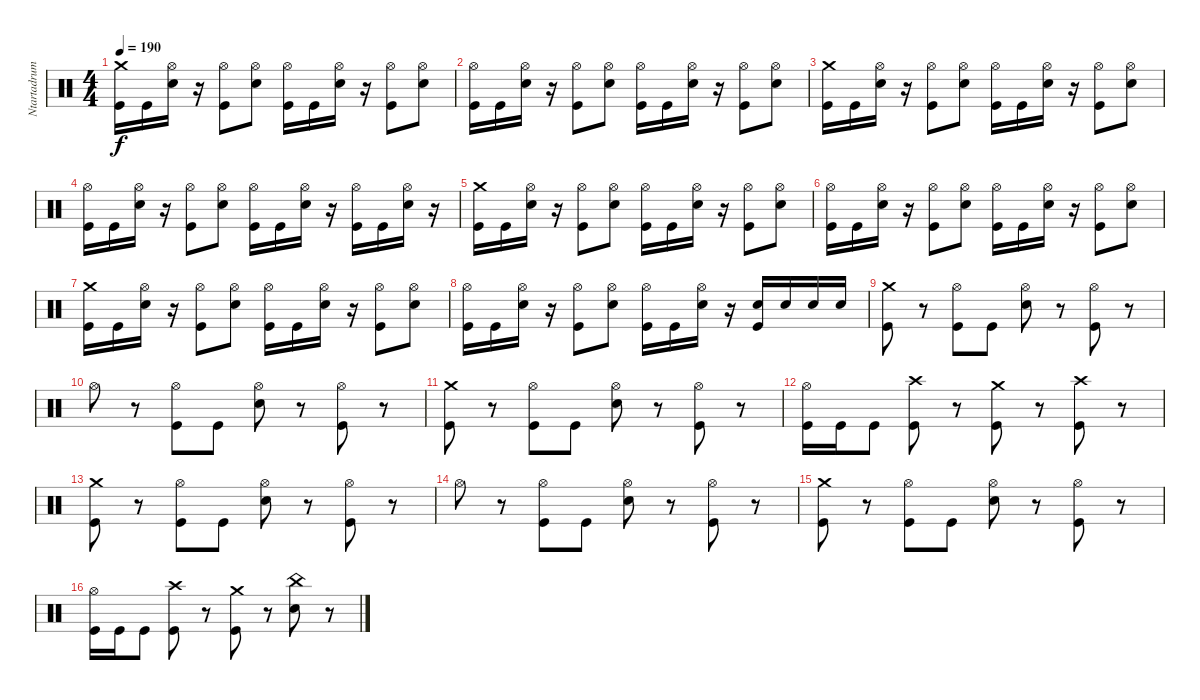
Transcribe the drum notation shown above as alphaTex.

\track ("Ntartadrum" "Ntartadrum") {instrument percussion}
\staff {score}
\articulation defaults
\ts (4 4)
\tempo 190
\clef neutral
\ks c
("Kick (hit)" "Crash medium (hit)").16{dy f} "Kick (hit)".16 ("Electric Snare (hit)" "Hi-Hat (open)").16 r.16 ("Kick (hit)" "Hi-Hat (open)").8 ("Electric Snare (hit)" "Hi-Hat (open)").8 ("Kick (hit)" "Hi-Hat (open)").16 "Kick (hit)".16 ("Electric Snare (hit)" "Hi-Hat (open)").16 r.16 ("Kick (hit)" "Hi-Hat (open)").8 ("Electric Snare (hit)" "Hi-Hat (open)").8 |
("Kick (hit)" "Hi-Hat (open)").16 "Kick (hit)".16 ("Electric Snare (hit)" "Hi-Hat (open)").16 r.16 ("Kick (hit)" "Hi-Hat (open)").8 ("Electric Snare (hit)" "Hi-Hat (open)").8 ("Kick (hit)" "Hi-Hat (open)").16 "Kick (hit)".16 ("Electric Snare (hit)" "Hi-Hat (open)").16 r.16 ("Kick (hit)" "Hi-Hat (open)").8 ("Electric Snare (hit)" "Hi-Hat (open)").8 |
("Kick (hit)" "Crash medium (hit)").16 "Kick (hit)".16 ("Electric Snare (hit)" "Hi-Hat (open)").16 r.16 ("Kick (hit)" "Hi-Hat (open)").8 ("Electric Snare (hit)" "Hi-Hat (open)").8 ("Kick (hit)" "Hi-Hat (open)").16 "Kick (hit)".16 ("Electric Snare (hit)" "Hi-Hat (open)").16 r.16 ("Kick (hit)" "Hi-Hat (open)").8 ("Electric Snare (hit)" "Hi-Hat (open)").8 |
("Kick (hit)" "Hi-Hat (open)").16 "Kick (hit)".16 ("Electric Snare (hit)" "Hi-Hat (open)").16 r.16 ("Kick (hit)" "Hi-Hat (open)").8 ("Electric Snare (hit)" "Hi-Hat (open)").8 ("Kick (hit)" "Hi-Hat (open)").16 "Kick (hit)".16 ("Electric Snare (hit)" "Hi-Hat (open)").16 r.16 ("Kick (hit)" "Hi-Hat (open)").16 "Kick (hit)".16 ("Electric Snare (hit)" "Hi-Hat (open)").16 r.16 |
("Kick (hit)" "Crash medium (hit)").16 "Kick (hit)".16 ("Electric Snare (hit)" "Hi-Hat (open)").16 r.16 ("Kick (hit)" "Hi-Hat (open)").8 ("Electric Snare (hit)" "Hi-Hat (open)").8 ("Kick (hit)" "Hi-Hat (open)").16 "Kick (hit)".16 ("Electric Snare (hit)" "Hi-Hat (open)").16 r.16 ("Kick (hit)" "Hi-Hat (open)").8 ("Electric Snare (hit)" "Hi-Hat (open)").8 |
("Kick (hit)" "Hi-Hat (open)").16 "Kick (hit)".16 ("Electric Snare (hit)" "Hi-Hat (open)").16 r.16 ("Kick (hit)" "Hi-Hat (open)").8 ("Electric Snare (hit)" "Hi-Hat (open)").8 ("Kick (hit)" "Hi-Hat (open)").16 "Kick (hit)".16 ("Electric Snare (hit)" "Hi-Hat (open)").16 r.16 ("Kick (hit)" "Hi-Hat (open)").8 ("Electric Snare (hit)" "Hi-Hat (open)").8 |
("Kick (hit)" "Crash medium (hit)").16 "Kick (hit)".16 ("Electric Snare (hit)" "Hi-Hat (open)").16 r.16 ("Kick (hit)" "Hi-Hat (open)").8 ("Electric Snare (hit)" "Hi-Hat (open)").8 ("Kick (hit)" "Hi-Hat (open)").16 "Kick (hit)".16 ("Electric Snare (hit)" "Hi-Hat (open)").16 r.16 ("Kick (hit)" "Hi-Hat (open)").8 ("Electric Snare (hit)" "Hi-Hat (open)").8 |
("Kick (hit)" "Hi-Hat (open)").16 "Kick (hit)".16 ("Electric Snare (hit)" "Hi-Hat (open)").16 r.16 ("Kick (hit)" "Hi-Hat (open)").8 ("Electric Snare (hit)" "Hi-Hat (open)").8 ("Kick (hit)" "Hi-Hat (open)").16 "Kick (hit)".16 ("Electric Snare (hit)" "Hi-Hat (open)").16 r.16 ("Kick (hit)" "Electric Snare (hit)").16 "Electric Snare (hit)".16 "Electric Snare (hit)".16 "Electric Snare (hit)".16 |
("Kick (hit)" "Crash medium (hit)").8 r.8 ("Kick (hit)" "Hi-Hat (open)").8 "Kick (hit)".8 ("Electric Snare (hit)" "Hi-Hat (open)").8 r.8 ("Kick (hit)" "Hi-Hat (open)").8 r.8 |
"Hi-Hat (open)".8 r.8 ("Kick (hit)" "Hi-Hat (open)").8 "Kick (hit)".8 ("Electric Snare (hit)" "Hi-Hat (open)").8 r.8 ("Kick (hit)" "Hi-Hat (open)").8 r.8 |
("Kick (hit)" "Crash medium (hit)").8 r.8 ("Kick (hit)" "Hi-Hat (open)").8 "Kick (hit)".8 ("Electric Snare (hit)" "Hi-Hat (open)").8 r.8 ("Kick (hit)" "Hi-Hat (open)").8 r.8 |
("Kick (hit)" "Hi-Hat (open)").16 "Kick (hit)".16 "Kick (hit)".8 ("Kick (hit)" "Crash high (hit)").8 r.8 ("Kick (hit)" "Crash medium (hit)").8 r.8 ("Kick (hit)" "Crash high (hit)").8 r.8 |
("Kick (hit)" "Crash medium (hit)").8 r.8 ("Kick (hit)" "Hi-Hat (open)").8 "Kick (hit)".8 ("Electric Snare (hit)" "Hi-Hat (open)").8 r.8 ("Kick (hit)" "Hi-Hat (open)").8 r.8 |
"Hi-Hat (open)".8 r.8 ("Kick (hit)" "Hi-Hat (open)").8 "Kick (hit)".8 ("Electric Snare (hit)" "Hi-Hat (open)").8 r.8 ("Kick (hit)" "Hi-Hat (open)").8 r.8 |
("Kick (hit)" "Crash medium (hit)").8 r.8 ("Kick (hit)" "Hi-Hat (open)").8 "Kick (hit)".8 ("Electric Snare (hit)" "Hi-Hat (open)").8 r.8 ("Kick (hit)" "Hi-Hat (open)").8 r.8 |
("Kick (hit)" "Hi-Hat (open)").16 "Kick (hit)".16 "Kick (hit)".8 ("Kick (hit)" "Crash high (hit)").8 r.8 ("Kick (hit)" "Crash medium (hit)").8 r.8 ("Electric Snare (hit)" "China (hit)").8 r.8
